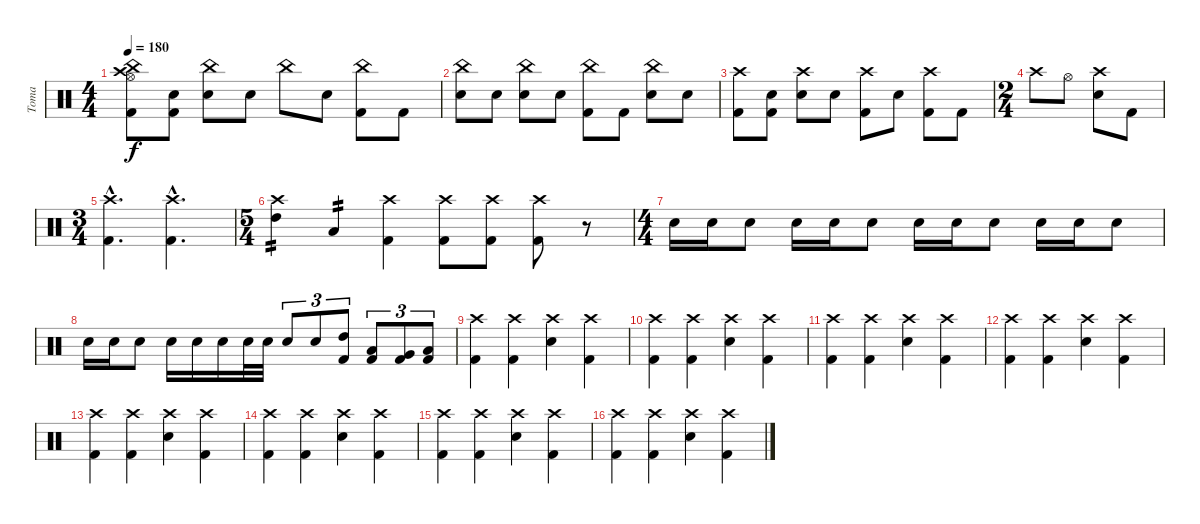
\track ("Toma" "Toma") {instrument percussion}
\staff {score}
\articulation defaults
\ts (4 4)
\tempo 180
\clef neutral
\ks c
("China (hit)" "Kick (hit) 2" "Hi-Hat (open)" "Crash high (hit)").8{dy f} ("Kick (hit) 2" "Snare (hit)").8 ("China (hit)" "Snare (hit)").8 "Snare (hit)".8 "China (hit)".8 "Snare (hit)".8 ("China (hit)" "Kick (hit) 2").8 "Kick (hit) 2".8 |
("China (hit)" "Electric Snare (hit)").8 "Snare (hit)".8 ("China (hit)" "Snare (hit)").8 "Snare (hit)".8 ("China (hit)" "Kick (hit) 2").8 "Kick (hit) 2".8 ("China (hit)" "Snare (hit)").8 "Snare (hit)".8 |
("Crash high (hit)" "Kick (hit) 2").8 ("Snare (hit)" "Kick (hit) 2").8 ("Crash high (hit)" "Snare (hit)").8 "Electric Snare (hit)".8 ("Crash high (hit)" "Kick (hit) 2").8 "Snare (hit)".8 ("Crash high (hit)" "Kick (hit) 2").8 "Kick (hit) 2".8 |
\ts (2 4)
"Crash high (hit)".8 "Hi-Hat (open)".8 ("Crash high (hit)" "Snare (hit)").8 "Kick (hit) 2".8 |
\ts (3 4)
("Crash high (hit)"{hac} "Kick (hit) 2"{hac}).4{d} ("Crash high (hit)"{hac} "Kick (hit) 2"{hac}).4{d} |
\ts (5 4)
("Crash high (hit)" "High Tom (hit)").4{tp 2} "Low Tom (hit)".4{tp 2} ("Crash high (hit)" "Kick (hit) 2").4 ("Crash high (hit)" "Kick (hit) 2").8 ("Crash high (hit)" "Kick (hit) 2").8 ("Crash high (hit)" "Kick (hit) 2").8 r.8 |
\ts (4 4)
"Electric Snare (hit)".16 "Electric Snare (hit)".16 "Electric Snare (hit)".8 "Electric Snare (hit)".16 "Electric Snare (hit)".16 "Electric Snare (hit)".8 "Electric Snare (hit)".16 "Electric Snare (hit)".16 "Electric Snare (hit)".8 "Electric Snare (hit)".16 "Electric Snare (hit)".16 "Electric Snare (hit)".8 |
"Electric Snare (hit)".16 "Electric Snare (hit)".16 "Electric Snare (hit)".8 "Electric Snare (hit)".16 "Electric Snare (hit)".16 "Electric Snare (hit)".16 "Electric Snare (hit)".32 "Electric Snare (hit)".32 "Electric Snare (hit)".8{tu (3 2)} "Electric Snare (hit)".8{tu (3 2)} ("Kick (hit) 2" "High Tom (hit)").8{tu (3 2)} ("Kick (hit) 2" "Low Tom (hit)").8{tu (3 2)} ("Kick (hit) 2" "Very Low Tom (hit)").8{tu (3 2)} ("Kick (hit) 2" "Low Floor Tom (hit)").8{tu (3 2)} |
("Crash high (hit)" "Kick (hit) 2").4 ("Crash high (hit)" "Kick (hit) 2").4 ("Crash high (hit)" "Electric Snare (hit)").4 ("Crash high (hit)" "Kick (hit) 2").4 |
("Crash high (hit)" "Kick (hit) 2").4 ("Crash high (hit)" "Kick (hit) 2").4 ("Crash high (hit)" "Electric Snare (hit)").4 ("Crash high (hit)" "Kick (hit) 2").4 |
("Crash high (hit)" "Kick (hit) 2").4 ("Crash high (hit)" "Kick (hit) 2").4 ("Crash high (hit)" "Electric Snare (hit)").4 ("Crash high (hit)" "Kick (hit) 2").4 |
("Crash high (hit)" "Kick (hit) 2").4 ("Crash high (hit)" "Kick (hit) 2").4 ("Crash high (hit)" "Electric Snare (hit)").4 ("Crash high (hit)" "Kick (hit) 2").4 |
("Crash high (hit)" "Kick (hit) 2").4 ("Crash high (hit)" "Kick (hit) 2").4 ("Crash high (hit)" "Electric Snare (hit)").4 ("Crash high (hit)" "Kick (hit) 2").4 |
("Crash high (hit)" "Kick (hit) 2").4 ("Crash high (hit)" "Kick (hit) 2").4 ("Crash high (hit)" "Electric Snare (hit)").4 ("Crash high (hit)" "Kick (hit) 2").4 |
("Crash high (hit)" "Kick (hit) 2").4 ("Crash high (hit)" "Kick (hit) 2").4 ("Crash high (hit)" "Electric Snare (hit)").4 ("Crash high (hit)" "Kick (hit) 2").4 |
("Crash high (hit)" "Kick (hit) 2").4 ("Crash high (hit)" "Kick (hit) 2").4 ("Crash high (hit)" "Electric Snare (hit)").4 ("Crash high (hit)" "Kick (hit) 2").4
